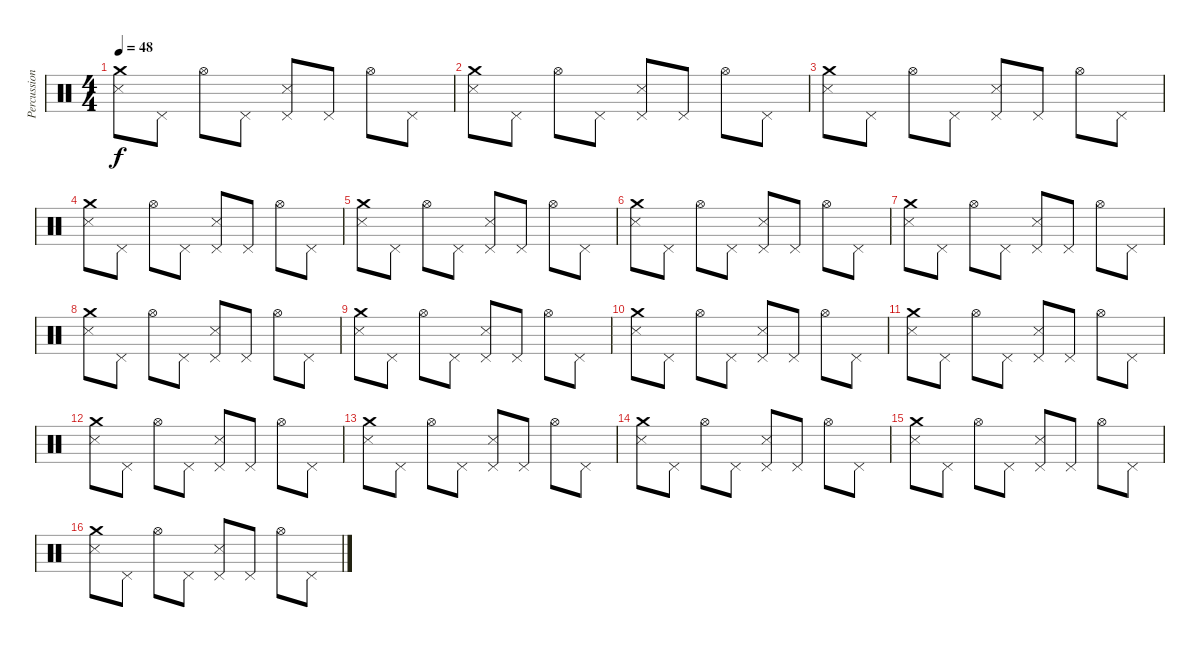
\track ("Percussion" "Percussion") {instrument percussion}
\staff {score}
\articulation defaults
\ts (4 4)
\tempo 48
\clef neutral
\ks c
("Crash medium (hit)" "Metronome (hit)").8{dy f} "Pedal Hi-Hat (hit)".8 "Hi-Hat (open)".8 "Pedal Hi-Hat (hit)".8 ("Pedal Hi-Hat (hit)" "Metronome (hit)").8 "Pedal Hi-Hat (hit)".8 "Hi-Hat (open)".8 "Pedal Hi-Hat (hit)".8 |
("Crash medium (hit)" "Metronome (hit)").8 "Pedal Hi-Hat (hit)".8 "Hi-Hat (open)".8 "Pedal Hi-Hat (hit)".8 ("Pedal Hi-Hat (hit)" "Metronome (hit)").8 "Pedal Hi-Hat (hit)".8 "Hi-Hat (open)".8 "Pedal Hi-Hat (hit)".8 |
("Crash medium (hit)" "Metronome (hit)").8 "Pedal Hi-Hat (hit)".8 "Hi-Hat (open)".8 "Pedal Hi-Hat (hit)".8 ("Pedal Hi-Hat (hit)" "Metronome (hit)").8 "Pedal Hi-Hat (hit)".8 "Hi-Hat (open)".8 "Pedal Hi-Hat (hit)".8 |
("Crash medium (hit)" "Metronome (hit)").8 "Pedal Hi-Hat (hit)".8 "Hi-Hat (open)".8 "Pedal Hi-Hat (hit)".8 ("Pedal Hi-Hat (hit)" "Metronome (hit)").8 "Pedal Hi-Hat (hit)".8 "Hi-Hat (open)".8 "Pedal Hi-Hat (hit)".8 |
("Crash medium (hit)" "Metronome (hit)").8 "Pedal Hi-Hat (hit)".8 "Hi-Hat (open)".8 "Pedal Hi-Hat (hit)".8 ("Pedal Hi-Hat (hit)" "Metronome (hit)").8 "Pedal Hi-Hat (hit)".8 "Hi-Hat (open)".8 "Pedal Hi-Hat (hit)".8 |
("Crash medium (hit)" "Metronome (hit)").8 "Pedal Hi-Hat (hit)".8 "Hi-Hat (open)".8 "Pedal Hi-Hat (hit)".8 ("Pedal Hi-Hat (hit)" "Metronome (hit)").8 "Pedal Hi-Hat (hit)".8 "Hi-Hat (open)".8 "Pedal Hi-Hat (hit)".8 |
("Crash medium (hit)" "Metronome (hit)").8 "Pedal Hi-Hat (hit)".8 "Hi-Hat (open)".8 "Pedal Hi-Hat (hit)".8 ("Pedal Hi-Hat (hit)" "Metronome (hit)").8 "Pedal Hi-Hat (hit)".8 "Hi-Hat (open)".8 "Pedal Hi-Hat (hit)".8 |
("Crash medium (hit)" "Metronome (hit)").8 "Pedal Hi-Hat (hit)".8 "Hi-Hat (open)".8 "Pedal Hi-Hat (hit)".8 ("Pedal Hi-Hat (hit)" "Metronome (hit)").8 "Pedal Hi-Hat (hit)".8 "Hi-Hat (open)".8 "Pedal Hi-Hat (hit)".8 |
("Crash medium (hit)" "Metronome (hit)").8 "Pedal Hi-Hat (hit)".8 "Hi-Hat (open)".8 "Pedal Hi-Hat (hit)".8 ("Pedal Hi-Hat (hit)" "Metronome (hit)").8 "Pedal Hi-Hat (hit)".8 "Hi-Hat (open)".8 "Pedal Hi-Hat (hit)".8 |
("Crash medium (hit)" "Metronome (hit)").8 "Pedal Hi-Hat (hit)".8 "Hi-Hat (open)".8 "Pedal Hi-Hat (hit)".8 ("Pedal Hi-Hat (hit)" "Metronome (hit)").8 "Pedal Hi-Hat (hit)".8 "Hi-Hat (open)".8 "Pedal Hi-Hat (hit)".8 |
("Crash medium (hit)" "Metronome (hit)").8 "Pedal Hi-Hat (hit)".8 "Hi-Hat (open)".8 "Pedal Hi-Hat (hit)".8 ("Pedal Hi-Hat (hit)" "Metronome (hit)").8 "Pedal Hi-Hat (hit)".8 "Hi-Hat (open)".8 "Pedal Hi-Hat (hit)".8 |
("Crash medium (hit)" "Metronome (hit)").8 "Pedal Hi-Hat (hit)".8 "Hi-Hat (open)".8 "Pedal Hi-Hat (hit)".8 ("Pedal Hi-Hat (hit)" "Metronome (hit)").8 "Pedal Hi-Hat (hit)".8 "Hi-Hat (open)".8 "Pedal Hi-Hat (hit)".8 |
("Crash medium (hit)" "Metronome (hit)").8 "Pedal Hi-Hat (hit)".8 "Hi-Hat (open)".8 "Pedal Hi-Hat (hit)".8 ("Pedal Hi-Hat (hit)" "Metronome (hit)").8 "Pedal Hi-Hat (hit)".8 "Hi-Hat (open)".8 "Pedal Hi-Hat (hit)".8 |
("Crash medium (hit)" "Metronome (hit)").8 "Pedal Hi-Hat (hit)".8 "Hi-Hat (open)".8 "Pedal Hi-Hat (hit)".8 ("Pedal Hi-Hat (hit)" "Metronome (hit)").8 "Pedal Hi-Hat (hit)".8 "Hi-Hat (open)".8 "Pedal Hi-Hat (hit)".8 |
("Crash medium (hit)" "Metronome (hit)").8 "Pedal Hi-Hat (hit)".8 "Hi-Hat (open)".8 "Pedal Hi-Hat (hit)".8 ("Pedal Hi-Hat (hit)" "Metronome (hit)").8 "Pedal Hi-Hat (hit)".8 "Hi-Hat (open)".8 "Pedal Hi-Hat (hit)".8 |
("Crash medium (hit)" "Metronome (hit)").8 "Pedal Hi-Hat (hit)".8 "Hi-Hat (open)".8 "Pedal Hi-Hat (hit)".8 ("Pedal Hi-Hat (hit)" "Metronome (hit)").8 "Pedal Hi-Hat (hit)".8 "Hi-Hat (open)".8 "Pedal Hi-Hat (hit)".8
